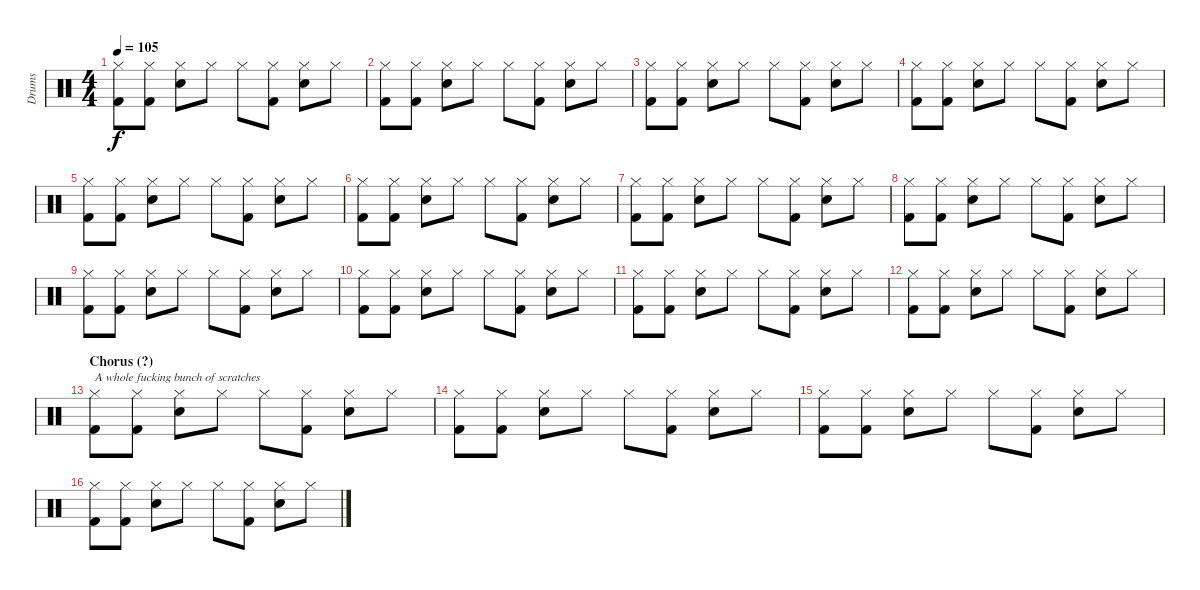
\track ("Drums" "Drums") {instrument percussion}
\staff {score}
\articulation defaults
\ts (4 4)
\tempo 105
\clef neutral
\ks c
("Hi-Hat (closed)" "Kick (hit) 2").8{dy f} ("Hi-Hat (closed)" "Kick (hit) 2").8 ("Hi-Hat (closed)" "Snare (hit) 2").8 "Hi-Hat (closed)".8 "Hi-Hat (closed)".8 ("Hi-Hat (closed)" "Kick (hit) 2").8 ("Hi-Hat (closed)" "Snare (hit) 2").8 "Hi-Hat (closed)".8 |
("Hi-Hat (closed)" "Kick (hit) 2").8 ("Hi-Hat (closed)" "Kick (hit) 2").8 ("Hi-Hat (closed)" "Snare (hit) 2").8 "Hi-Hat (closed)".8 "Hi-Hat (closed)".8 ("Hi-Hat (closed)" "Kick (hit) 2").8 ("Hi-Hat (closed)" "Snare (hit) 2").8 "Hi-Hat (closed)".8 |
("Hi-Hat (closed)" "Kick (hit) 2").8 ("Hi-Hat (closed)" "Kick (hit) 2").8 ("Hi-Hat (closed)" "Snare (hit) 2").8 "Hi-Hat (closed)".8 "Hi-Hat (closed)".8 ("Hi-Hat (closed)" "Kick (hit) 2").8 ("Hi-Hat (closed)" "Snare (hit) 2").8 "Hi-Hat (closed)".8 |
("Hi-Hat (closed)" "Kick (hit) 2").8 ("Hi-Hat (closed)" "Kick (hit) 2").8 ("Hi-Hat (closed)" "Snare (hit) 2").8 "Hi-Hat (closed)".8 "Hi-Hat (closed)".8 ("Hi-Hat (closed)" "Kick (hit) 2").8 ("Hi-Hat (closed)" "Snare (hit) 2").8 "Hi-Hat (closed)".8 |
("Hi-Hat (closed)" "Kick (hit) 2").8 ("Hi-Hat (closed)" "Kick (hit) 2").8 ("Hi-Hat (closed)" "Snare (hit) 2").8 "Hi-Hat (closed)".8 "Hi-Hat (closed)".8 ("Hi-Hat (closed)" "Kick (hit) 2").8 ("Hi-Hat (closed)" "Snare (hit) 2").8 "Hi-Hat (closed)".8 |
("Hi-Hat (closed)" "Kick (hit) 2").8 ("Hi-Hat (closed)" "Kick (hit) 2").8 ("Hi-Hat (closed)" "Snare (hit) 2").8 "Hi-Hat (closed)".8 "Hi-Hat (closed)".8 ("Hi-Hat (closed)" "Kick (hit) 2").8 ("Hi-Hat (closed)" "Snare (hit) 2").8 "Hi-Hat (closed)".8 |
("Hi-Hat (closed)" "Kick (hit) 2").8 ("Hi-Hat (closed)" "Kick (hit) 2").8 ("Hi-Hat (closed)" "Snare (hit) 2").8 "Hi-Hat (closed)".8 "Hi-Hat (closed)".8 ("Hi-Hat (closed)" "Kick (hit) 2").8 ("Hi-Hat (closed)" "Snare (hit) 2").8 "Hi-Hat (closed)".8 |
("Hi-Hat (closed)" "Kick (hit) 2").8 ("Hi-Hat (closed)" "Kick (hit) 2").8 ("Hi-Hat (closed)" "Snare (hit) 2").8 "Hi-Hat (closed)".8 "Hi-Hat (closed)".8 ("Hi-Hat (closed)" "Kick (hit) 2").8 ("Hi-Hat (closed)" "Snare (hit) 2").8 "Hi-Hat (closed)".8 |
("Hi-Hat (closed)" "Kick (hit) 2").8 ("Hi-Hat (closed)" "Kick (hit) 2").8 ("Hi-Hat (closed)" "Snare (hit) 2").8 "Hi-Hat (closed)".8 "Hi-Hat (closed)".8 ("Hi-Hat (closed)" "Kick (hit) 2").8 ("Hi-Hat (closed)" "Snare (hit) 2").8 "Hi-Hat (closed)".8 |
("Hi-Hat (closed)" "Kick (hit) 2").8 ("Hi-Hat (closed)" "Kick (hit) 2").8 ("Hi-Hat (closed)" "Snare (hit) 2").8 "Hi-Hat (closed)".8 "Hi-Hat (closed)".8 ("Hi-Hat (closed)" "Kick (hit) 2").8 ("Hi-Hat (closed)" "Snare (hit) 2").8 "Hi-Hat (closed)".8 |
("Hi-Hat (closed)" "Kick (hit) 2").8 ("Hi-Hat (closed)" "Kick (hit) 2").8 ("Hi-Hat (closed)" "Snare (hit) 2").8 "Hi-Hat (closed)".8 "Hi-Hat (closed)".8 ("Hi-Hat (closed)" "Kick (hit) 2").8 ("Hi-Hat (closed)" "Snare (hit) 2").8 "Hi-Hat (closed)".8 |
("Hi-Hat (closed)" "Kick (hit) 2").8 ("Hi-Hat (closed)" "Kick (hit) 2").8 ("Hi-Hat (closed)" "Snare (hit) 2").8 "Hi-Hat (closed)".8 "Hi-Hat (closed)".8 ("Hi-Hat (closed)" "Kick (hit) 2").8 ("Hi-Hat (closed)" "Snare (hit) 2").8 "Hi-Hat (closed)".8 |
\section ("" "Chorus (?)")
("Hi-Hat (closed)" "Kick (hit) 2").8{txt "A whole fucking bunch of scratches"} ("Hi-Hat (closed)" "Kick (hit) 2").8 ("Hi-Hat (closed)" "Snare (hit) 2").8 "Hi-Hat (closed)".8 "Hi-Hat (closed)".8 ("Hi-Hat (closed)" "Kick (hit) 2").8 ("Hi-Hat (closed)" "Snare (hit) 2").8 "Hi-Hat (closed)".8 |
("Hi-Hat (closed)" "Kick (hit) 2").8 ("Hi-Hat (closed)" "Kick (hit) 2").8 ("Hi-Hat (closed)" "Snare (hit) 2").8 "Hi-Hat (closed)".8 "Hi-Hat (closed)".8 ("Hi-Hat (closed)" "Kick (hit) 2").8 ("Hi-Hat (closed)" "Snare (hit) 2").8 "Hi-Hat (closed)".8 |
("Hi-Hat (closed)" "Kick (hit) 2").8 ("Hi-Hat (closed)" "Kick (hit) 2").8 ("Hi-Hat (closed)" "Snare (hit) 2").8 "Hi-Hat (closed)".8 "Hi-Hat (closed)".8 ("Hi-Hat (closed)" "Kick (hit) 2").8 ("Hi-Hat (closed)" "Snare (hit) 2").8 "Hi-Hat (closed)".8 |
("Hi-Hat (closed)" "Kick (hit) 2").8 ("Hi-Hat (closed)" "Kick (hit) 2").8 ("Hi-Hat (closed)" "Snare (hit) 2").8 "Hi-Hat (closed)".8 "Hi-Hat (closed)".8 ("Hi-Hat (closed)" "Kick (hit) 2").8 ("Hi-Hat (closed)" "Snare (hit) 2").8 "Hi-Hat (closed)".8
